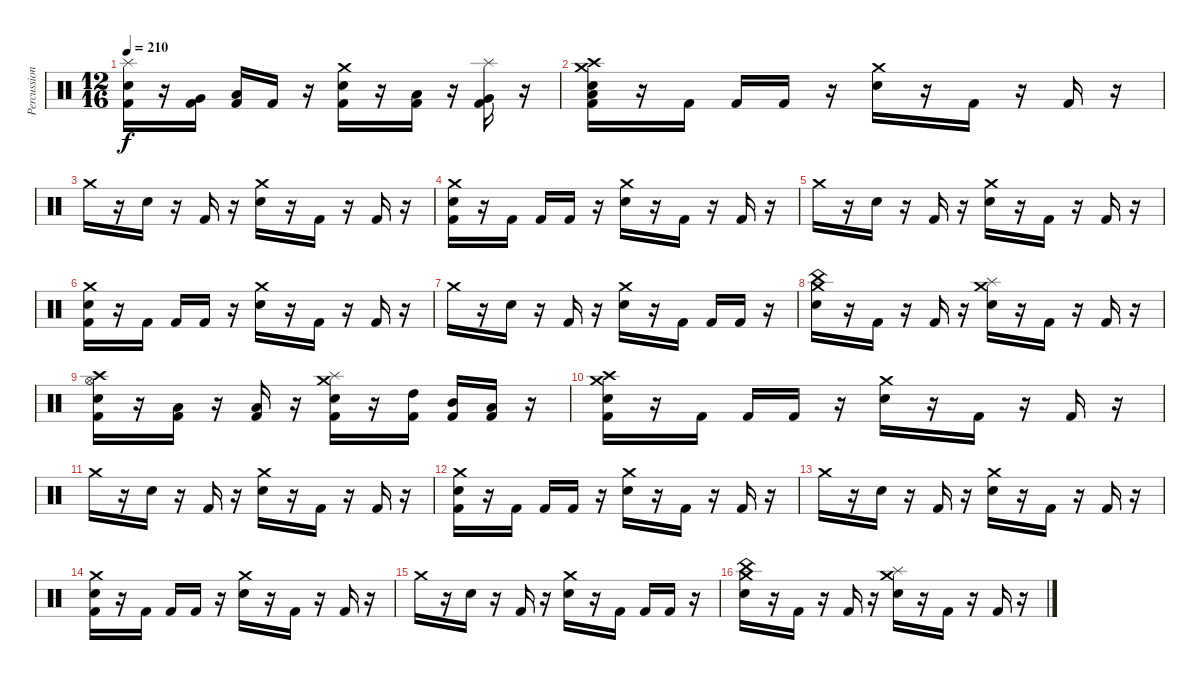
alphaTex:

\track ("Percussion" "Percussion") {instrument percussion}
\staff {score}
\articulation defaults
\ts (12 16)
\tempo 210
\clef neutral
\ks c
("Splash (hit)" "Electric Snare (hit)" "Kick (hit) 2").16{dy f} r.16 ("Very Low Tom (hit)" "Kick (hit) 2").16 ("Low Floor Tom (hit)" "Kick (hit) 2").16 "Kick (hit) 2".16 r.16 ("Crash medium (hit)" "Electric Snare (hit)" "Kick (hit) 2").16 r.16 ("Low Tom (hit)" "Kick (hit) 2").16 r.16 ("Splash (hit)" "Very Low Tom (hit)" "Kick (hit) 2").16 r.16 |
("Crash high (hit)" "Crash medium (hit)" "Electric Snare (hit)" "Low Floor Tom (hit)" "Kick (hit) 2").16 r.16 "Kick (hit) 2".16 "Kick (hit) 2".16 "Kick (hit) 2".16 r.16 ("Crash medium (hit)" "Electric Snare (hit)").16 r.16 "Kick (hit) 2".16 r.16 "Kick (hit) 2".16 r.16 |
"Crash medium (hit)".16 r.16 "Electric Snare (hit)".16 r.16 "Kick (hit) 2".16 r.16 ("Crash medium (hit)" "Electric Snare (hit)").16 r.16 "Kick (hit) 2".16 r.16 "Kick (hit) 2".16 r.16 |
("Crash medium (hit)" "Electric Snare (hit)" "Kick (hit) 2").16 r.16 "Kick (hit) 2".16 "Kick (hit) 2".16 "Kick (hit) 2".16 r.16 ("Crash medium (hit)" "Electric Snare (hit)").16 r.16 "Kick (hit) 2".16 r.16 "Kick (hit) 2".16 r.16 |
"Crash medium (hit)".16 r.16 "Electric Snare (hit)".16 r.16 "Kick (hit) 2".16 r.16 ("Crash medium (hit)" "Electric Snare (hit)").16 r.16 "Kick (hit) 2".16 r.16 "Kick (hit) 2".16 r.16 |
("Crash medium (hit)" "Electric Snare (hit)" "Kick (hit) 2").16 r.16 "Kick (hit) 2".16 "Kick (hit) 2".16 "Kick (hit) 2".16 r.16 ("Crash medium (hit)" "Electric Snare (hit)").16 r.16 "Kick (hit) 2".16 r.16 "Kick (hit) 2".16 r.16 |
"Crash medium (hit)".16 r.16 "Electric Snare (hit)".16 r.16 "Kick (hit) 2".16 r.16 ("Crash medium (hit)" "Electric Snare (hit)").16 r.16 "Kick (hit) 2".16 "Kick (hit) 2".16 "Kick (hit) 2".16 r.16 |
("Crash medium (hit)" "China (hit)" "Electric Snare (hit)").16 r.16 "Kick (hit) 2".16 r.16 "Kick (hit) 2".16 r.16 ("Crash medium (hit)" "Splash (hit)" "Electric Snare (hit)").16 r.16 "Kick (hit) 2".16 r.16 "Kick (hit) 2".16 r.16 |
("Crash high (hit)" "Hi-Hat (open)" "Electric Snare (hit)" "Kick (hit) 2").16 r.16 ("Low Tom (hit)" "Kick (hit) 2").16 r.16 ("Low Floor Tom (hit)" "Kick (hit) 2").16 r.16 ("Crash medium (hit)" "Splash (hit)" "Electric Snare (hit)" "Kick (hit) 2").16 r.16 ("High Tom (hit)" "Kick (hit) 2").16 ("Mid Tom (hit)" "Kick (hit) 2").16 ("Low Tom (hit)" "Kick (hit) 2").16 r.16 |
("Crash high (hit)" "Crash medium (hit)" "Electric Snare (hit)" "Kick (hit) 2").16 r.16 "Kick (hit) 2".16 "Kick (hit) 2".16 "Kick (hit) 2".16 r.16 ("Crash medium (hit)" "Electric Snare (hit)").16 r.16 "Kick (hit) 2".16 r.16 "Kick (hit) 2".16 r.16 |
"Crash medium (hit)".16 r.16 "Electric Snare (hit)".16 r.16 "Kick (hit) 2".16 r.16 ("Crash medium (hit)" "Electric Snare (hit)").16 r.16 "Kick (hit) 2".16 r.16 "Kick (hit) 2".16 r.16 |
("Crash medium (hit)" "Electric Snare (hit)" "Kick (hit) 2").16 r.16 "Kick (hit) 2".16 "Kick (hit) 2".16 "Kick (hit) 2".16 r.16 ("Crash medium (hit)" "Electric Snare (hit)").16 r.16 "Kick (hit) 2".16 r.16 "Kick (hit) 2".16 r.16 |
"Crash medium (hit)".16 r.16 "Electric Snare (hit)".16 r.16 "Kick (hit) 2".16 r.16 ("Crash medium (hit)" "Electric Snare (hit)").16 r.16 "Kick (hit) 2".16 r.16 "Kick (hit) 2".16 r.16 |
("Crash medium (hit)" "Electric Snare (hit)" "Kick (hit) 2").16 r.16 "Kick (hit) 2".16 "Kick (hit) 2".16 "Kick (hit) 2".16 r.16 ("Crash medium (hit)" "Electric Snare (hit)").16 r.16 "Kick (hit) 2".16 r.16 "Kick (hit) 2".16 r.16 |
"Crash medium (hit)".16 r.16 "Electric Snare (hit)".16 r.16 "Kick (hit) 2".16 r.16 ("Crash medium (hit)" "Electric Snare (hit)").16 r.16 "Kick (hit) 2".16 "Kick (hit) 2".16 "Kick (hit) 2".16 r.16 |
("Crash medium (hit)" "China (hit)" "Electric Snare (hit)").16 r.16 "Kick (hit) 2".16 r.16 "Kick (hit) 2".16 r.16 ("Crash medium (hit)" "Splash (hit)" "Electric Snare (hit)").16 r.16 "Kick (hit) 2".16 r.16 "Kick (hit) 2".16 r.16
